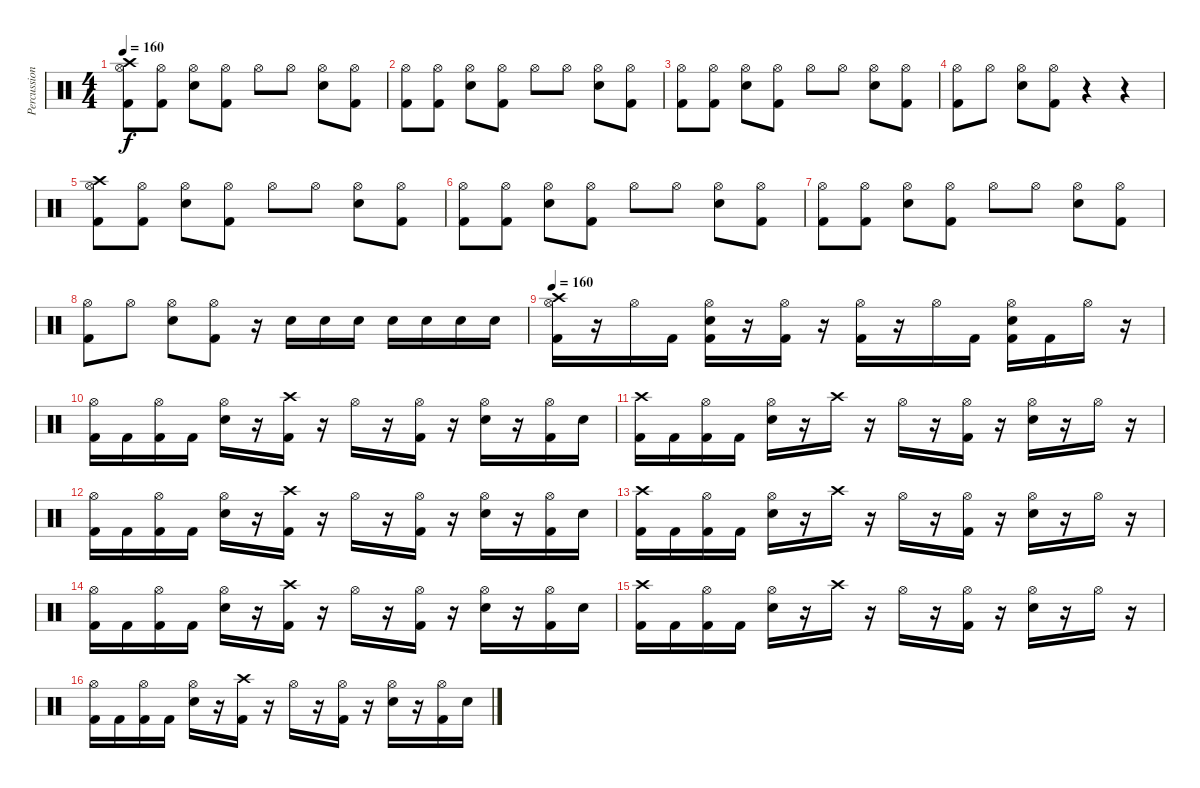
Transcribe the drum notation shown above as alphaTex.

\track ("Percussion" "Percussion") {instrument percussion}
\staff {score}
\articulation defaults
\ts (4 4)
\tempo 160
\clef neutral
\ks c
("Crash high (hit)" "Hi-Hat (open)" "Kick (hit) 2").8{dy f} ("Hi-Hat (open)" "Kick (hit) 2").8 ("Hi-Hat (open)" "Electric Snare (hit)").8 ("Hi-Hat (open)" "Kick (hit) 2").8 "Hi-Hat (open)".8 "Hi-Hat (open)".8 ("Hi-Hat (open)" "Electric Snare (hit)").8 ("Hi-Hat (open)" "Kick (hit) 2").8 |
("Hi-Hat (open)" "Kick (hit) 2").8 ("Hi-Hat (open)" "Kick (hit) 2").8 ("Hi-Hat (open)" "Electric Snare (hit)").8 ("Hi-Hat (open)" "Kick (hit) 2").8 "Hi-Hat (open)".8 "Hi-Hat (open)".8 ("Hi-Hat (open)" "Electric Snare (hit)").8 ("Hi-Hat (open)" "Kick (hit) 2").8 |
("Hi-Hat (open)" "Kick (hit) 2").8 ("Hi-Hat (open)" "Kick (hit) 2").8 ("Hi-Hat (open)" "Electric Snare (hit)").8 ("Hi-Hat (open)" "Kick (hit) 2").8 "Hi-Hat (open)".8 "Hi-Hat (open)".8 ("Hi-Hat (open)" "Electric Snare (hit)").8 ("Hi-Hat (open)" "Kick (hit) 2").8 |
("Hi-Hat (open)" "Kick (hit) 2").8 "Hi-Hat (open)".8 ("Hi-Hat (open)" "Electric Snare (hit)").8 ("Hi-Hat (open)" "Kick (hit) 2").8 r.4 r.4 |
("Crash high (hit)" "Hi-Hat (open)" "Kick (hit) 2").8 ("Hi-Hat (open)" "Kick (hit) 2").8 ("Hi-Hat (open)" "Electric Snare (hit)").8 ("Hi-Hat (open)" "Kick (hit) 2").8 "Hi-Hat (open)".8 "Hi-Hat (open)".8 ("Hi-Hat (open)" "Electric Snare (hit)").8 ("Hi-Hat (open)" "Kick (hit) 2").8 |
("Hi-Hat (open)" "Kick (hit) 2").8 ("Hi-Hat (open)" "Kick (hit) 2").8 ("Hi-Hat (open)" "Electric Snare (hit)").8 ("Hi-Hat (open)" "Kick (hit) 2").8 "Hi-Hat (open)".8 "Hi-Hat (open)".8 ("Hi-Hat (open)" "Electric Snare (hit)").8 ("Hi-Hat (open)" "Kick (hit) 2").8 |
("Hi-Hat (open)" "Kick (hit) 2").8 ("Hi-Hat (open)" "Kick (hit) 2").8 ("Hi-Hat (open)" "Electric Snare (hit)").8 ("Hi-Hat (open)" "Kick (hit) 2").8 "Hi-Hat (open)".8 "Hi-Hat (open)".8 ("Hi-Hat (open)" "Electric Snare (hit)").8 ("Hi-Hat (open)" "Kick (hit) 2").8 |
("Hi-Hat (open)" "Kick (hit) 2").8 "Hi-Hat (open)".8 ("Hi-Hat (open)" "Electric Snare (hit)").8 ("Hi-Hat (open)" "Kick (hit) 2").8 r.16 "Electric Snare (hit)".16 "Electric Snare (hit)".16 "Electric Snare (hit)".16 "Electric Snare (hit)".16 "Electric Snare (hit)".16 "Electric Snare (hit)".16 "Electric Snare (hit)".16 |
\tempo 160
("Crash high (hit)" "Hi-Hat (open)" "Kick (hit) 2").16 r.16 "Hi-Hat (open)".16 "Kick (hit) 2".16 ("Hi-Hat (open)" "Electric Snare (hit)" "Kick (hit) 2").16 r.16 ("Hi-Hat (open)" "Kick (hit) 2").16 r.16 ("Hi-Hat (open)" "Kick (hit) 2").16 r.16 "Hi-Hat (open)".16 "Kick (hit) 2".16 ("Hi-Hat (open)" "Electric Snare (hit)" "Kick (hit) 2").16 "Kick (hit) 2".16 "Hi-Hat (open)".16 r.16 |
("Hi-Hat (open)" "Kick (hit) 2").16 "Kick (hit) 2".16 ("Hi-Hat (open)" "Kick (hit) 2").16 "Kick (hit) 2".16 ("Hi-Hat (open)" "Electric Snare (hit)").16 r.16 ("Crash high (hit)" "Kick (hit) 2").16 r.16 "Hi-Hat (open)".16 r.16 ("Hi-Hat (open)" "Kick (hit) 2").16 r.16 ("Hi-Hat (open)" "Electric Snare (hit)").16 r.16 ("Hi-Hat (open)" "Kick (hit) 2").16 "Electric Snare (hit)".16 |
("Crash high (hit)" "Kick (hit) 2").16 "Kick (hit) 2".16 ("Hi-Hat (open)" "Kick (hit) 2").16 "Kick (hit) 2".16 ("Hi-Hat (open)" "Electric Snare (hit)").16 r.16 "Crash high (hit)".16 r.16 "Hi-Hat (open)".16 r.16 ("Hi-Hat (open)" "Kick (hit) 2").16 r.16 ("Hi-Hat (open)" "Electric Snare (hit)").16 r.16 "Hi-Hat (open)".16 r.16 |
("Hi-Hat (open)" "Kick (hit) 2").16 "Kick (hit) 2".16 ("Hi-Hat (open)" "Kick (hit) 2").16 "Kick (hit) 2".16 ("Hi-Hat (open)" "Electric Snare (hit)").16 r.16 ("Crash high (hit)" "Kick (hit) 2").16 r.16 "Hi-Hat (open)".16 r.16 ("Hi-Hat (open)" "Kick (hit) 2").16 r.16 ("Hi-Hat (open)" "Electric Snare (hit)").16 r.16 ("Hi-Hat (open)" "Kick (hit) 2").16 "Electric Snare (hit)".16 |
("Crash high (hit)" "Kick (hit) 2").16 "Kick (hit) 2".16 ("Hi-Hat (open)" "Kick (hit) 2").16 "Kick (hit) 2".16 ("Hi-Hat (open)" "Electric Snare (hit)").16 r.16 "Crash high (hit)".16 r.16 "Hi-Hat (open)".16 r.16 ("Hi-Hat (open)" "Kick (hit) 2").16 r.16 ("Hi-Hat (open)" "Electric Snare (hit)").16 r.16 "Hi-Hat (open)".16 r.16 |
("Hi-Hat (open)" "Kick (hit) 2").16 "Kick (hit) 2".16 ("Hi-Hat (open)" "Kick (hit) 2").16 "Kick (hit) 2".16 ("Hi-Hat (open)" "Electric Snare (hit)").16 r.16 ("Crash high (hit)" "Kick (hit) 2").16 r.16 "Hi-Hat (open)".16 r.16 ("Hi-Hat (open)" "Kick (hit) 2").16 r.16 ("Hi-Hat (open)" "Electric Snare (hit)").16 r.16 ("Hi-Hat (open)" "Kick (hit) 2").16 "Electric Snare (hit)".16 |
("Crash high (hit)" "Kick (hit) 2").16 "Kick (hit) 2".16 ("Hi-Hat (open)" "Kick (hit) 2").16 "Kick (hit) 2".16 ("Hi-Hat (open)" "Electric Snare (hit)").16 r.16 "Crash high (hit)".16 r.16 "Hi-Hat (open)".16 r.16 ("Hi-Hat (open)" "Kick (hit) 2").16 r.16 ("Hi-Hat (open)" "Electric Snare (hit)").16 r.16 "Hi-Hat (open)".16 r.16 |
("Hi-Hat (open)" "Kick (hit) 2").16 "Kick (hit) 2".16 ("Hi-Hat (open)" "Kick (hit) 2").16 "Kick (hit) 2".16 ("Hi-Hat (open)" "Electric Snare (hit)").16 r.16 ("Crash high (hit)" "Kick (hit) 2").16 r.16 "Hi-Hat (open)".16 r.16 ("Hi-Hat (open)" "Kick (hit) 2").16 r.16 ("Hi-Hat (open)" "Electric Snare (hit)").16 r.16 ("Hi-Hat (open)" "Kick (hit) 2").16 "Electric Snare (hit)".16
